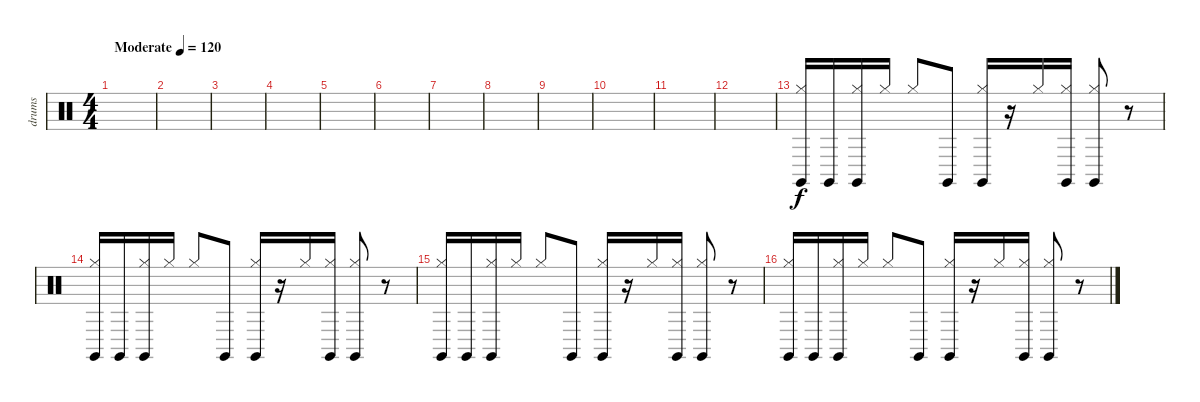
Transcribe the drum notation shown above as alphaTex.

\track ("drums" "drums") {instrument percussion}
\staff {score}
\articulation defaults
\ts (4 4)
\tempo (120 "Moderate")
\clef neutral
\ks c
|
|
|
|
|
|
|
|
|
|
|
|
("Claves (hit)" "Hi-Hat (closed)").16 "Claves (hit)".16 ("Claves (hit)" "Hi-Hat (closed)").16 "Hi-Hat (closed)".16 "Hi-Hat (closed)".8 "Claves (hit)".8 ("Claves (hit)" "Hi-Hat (closed)").16 r.16 "Hi-Hat (closed)".16 ("Claves (hit)" "Hi-Hat (closed)").16 ("Claves (hit)" "Hi-Hat (closed)").8 r.8 |
("Claves (hit)" "Hi-Hat (closed)").16 "Claves (hit)".16 ("Claves (hit)" "Hi-Hat (closed)").16 "Hi-Hat (closed)".16 "Hi-Hat (closed)".8 "Claves (hit)".8 ("Claves (hit)" "Hi-Hat (closed)").16 r.16 "Hi-Hat (closed)".16 ("Claves (hit)" "Hi-Hat (closed)").16 ("Claves (hit)" "Hi-Hat (closed)").8 r.8 |
("Claves (hit)" "Hi-Hat (closed)").16 "Claves (hit)".16 ("Claves (hit)" "Hi-Hat (closed)").16 "Hi-Hat (closed)".16 "Hi-Hat (closed)".8 "Claves (hit)".8 ("Claves (hit)" "Hi-Hat (closed)").16 r.16 "Hi-Hat (closed)".16 ("Claves (hit)" "Hi-Hat (closed)").16 ("Claves (hit)" "Hi-Hat (closed)").8 r.8 |
("Claves (hit)" "Hi-Hat (closed)").16 "Claves (hit)".16 ("Claves (hit)" "Hi-Hat (closed)").16 "Hi-Hat (closed)".16 "Hi-Hat (closed)".8 "Claves (hit)".8 ("Claves (hit)" "Hi-Hat (closed)").16 r.16 "Hi-Hat (closed)".16 ("Claves (hit)" "Hi-Hat (closed)").16 ("Claves (hit)" "Hi-Hat (closed)").8 r.8
